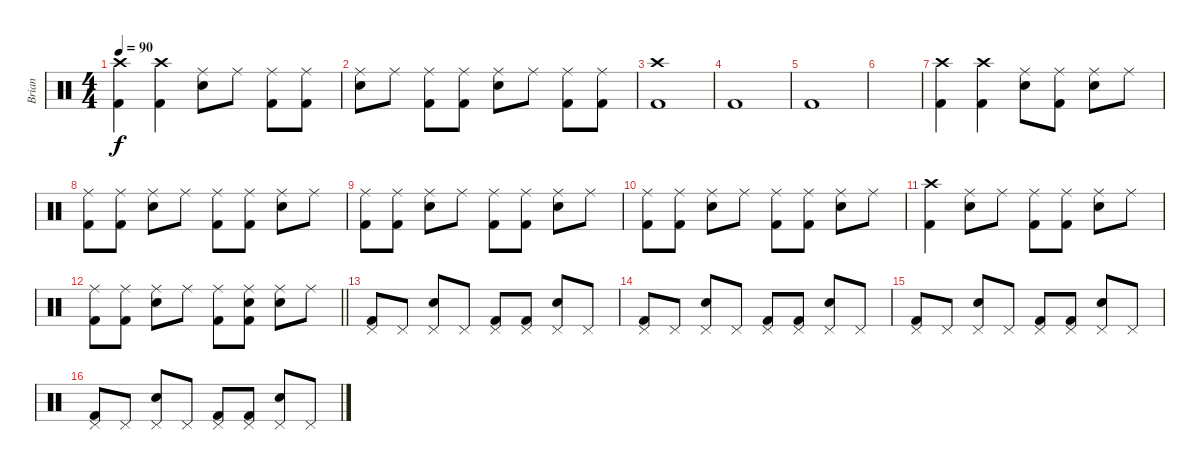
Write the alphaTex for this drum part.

\track ("Brian" "Brian") {instrument percussion}
\staff {score}
\articulation defaults
\ts (4 4)
\tempo 90
\clef neutral
\ks c
("Crash high (hit)" "Kick (hit) 2").4{dy f} ("Crash high (hit)" "Kick (hit) 2").4 ("Ride (middle)" "Electric Snare (hit)").8 "Ride (middle)".8 ("Ride (middle)" "Kick (hit) 2").8 ("Ride (middle)" "Kick (hit) 2").8 |
("Ride (middle)" "Electric Snare (hit)").8 "Ride (middle)".8 ("Ride (middle)" "Kick (hit) 2").8 ("Ride (middle)" "Kick (hit) 2").8 ("Ride (middle)" "Electric Snare (hit)").8 "Ride (middle)".8 ("Ride (middle)" "Kick (hit) 2").8 ("Ride (middle)" "Kick (hit) 2").8 |
("Crash high (hit)" "Kick (hit) 2").1 |
"Kick (hit) 2".1 |
"Kick (hit) 2".1 |
|
("Crash high (hit)" "Kick (hit) 2").4 ("Crash high (hit)" "Kick (hit) 2").4 ("Ride (middle)" "Electric Snare (hit)").8 ("Ride (middle)" "Kick (hit) 2").8 ("Ride (middle)" "Electric Snare (hit)").8 "Ride (middle)".8 |
("Ride (middle)" "Kick (hit) 2").8 ("Ride (middle)" "Kick (hit) 2").8 ("Ride (middle)" "Electric Snare (hit)").8 "Ride (middle)".8 ("Ride (middle)" "Kick (hit) 2").8 ("Ride (middle)" "Kick (hit) 2").8 ("Ride (middle)" "Electric Snare (hit)").8 "Ride (middle)".8 |
("Ride (middle)" "Kick (hit) 2").8 ("Ride (middle)" "Kick (hit) 2").8 ("Ride (middle)" "Electric Snare (hit)").8 "Ride (middle)".8 ("Ride (middle)" "Kick (hit) 2").8 ("Ride (middle)" "Kick (hit) 2").8 ("Ride (middle)" "Electric Snare (hit)").8 "Ride (middle)".8 |
("Ride (middle)" "Kick (hit) 2").8 ("Ride (middle)" "Kick (hit) 2").8 ("Ride (middle)" "Electric Snare (hit)").8 "Ride (middle)".8 ("Ride (middle)" "Kick (hit) 2").8 ("Ride (middle)" "Kick (hit) 2").8 ("Ride (middle)" "Electric Snare (hit)").8 "Ride (middle)".8 |
("Crash high (hit)" "Kick (hit) 2").4 ("Ride (middle)" "Electric Snare (hit)").8 "Ride (middle)".8 ("Ride (middle)" "Kick (hit) 2").8 ("Ride (middle)" "Kick (hit) 2").8 ("Ride (middle)" "Electric Snare (hit)").8 "Ride (middle)".8 |
\barLineRight lightlight
("Ride (middle)" "Kick (hit) 2").8 ("Ride (middle)" "Kick (hit) 2").8 ("Ride (middle)" "Electric Snare (hit)").8 "Ride (middle)".8 ("Ride (middle)" "Kick (hit) 2").8 ("Ride (middle)" "Electric Snare (hit)" "Kick (hit) 2").8 ("Ride (middle)" "Electric Snare (hit)").8 "Ride (middle)".8 |
("Pedal Hi-Hat (hit)" "Kick (hit) 2").8 "Pedal Hi-Hat (hit)".8 ("Pedal Hi-Hat (hit)" "Electric Snare (hit)").8 "Pedal Hi-Hat (hit)".8 ("Pedal Hi-Hat (hit)" "Kick (hit) 2").8 ("Pedal Hi-Hat (hit)" "Kick (hit) 2").8 ("Pedal Hi-Hat (hit)" "Electric Snare (hit)").8 "Pedal Hi-Hat (hit)".8 |
("Pedal Hi-Hat (hit)" "Kick (hit) 2").8 "Pedal Hi-Hat (hit)".8 ("Pedal Hi-Hat (hit)" "Electric Snare (hit)").8 "Pedal Hi-Hat (hit)".8 ("Pedal Hi-Hat (hit)" "Kick (hit) 2").8 ("Pedal Hi-Hat (hit)" "Kick (hit) 2").8 ("Pedal Hi-Hat (hit)" "Electric Snare (hit)").8 "Pedal Hi-Hat (hit)".8 |
("Pedal Hi-Hat (hit)" "Kick (hit) 2").8 "Pedal Hi-Hat (hit)".8 ("Pedal Hi-Hat (hit)" "Electric Snare (hit)").8 "Pedal Hi-Hat (hit)".8 ("Pedal Hi-Hat (hit)" "Kick (hit) 2").8 ("Pedal Hi-Hat (hit)" "Kick (hit) 2").8 ("Pedal Hi-Hat (hit)" "Electric Snare (hit)").8 "Pedal Hi-Hat (hit)".8 |
("Pedal Hi-Hat (hit)" "Kick (hit) 2").8 "Pedal Hi-Hat (hit)".8 ("Pedal Hi-Hat (hit)" "Electric Snare (hit)").8 "Pedal Hi-Hat (hit)".8 ("Pedal Hi-Hat (hit)" "Kick (hit) 2").8 ("Pedal Hi-Hat (hit)" "Kick (hit) 2").8 ("Pedal Hi-Hat (hit)" "Electric Snare (hit)").8 "Pedal Hi-Hat (hit)".8
